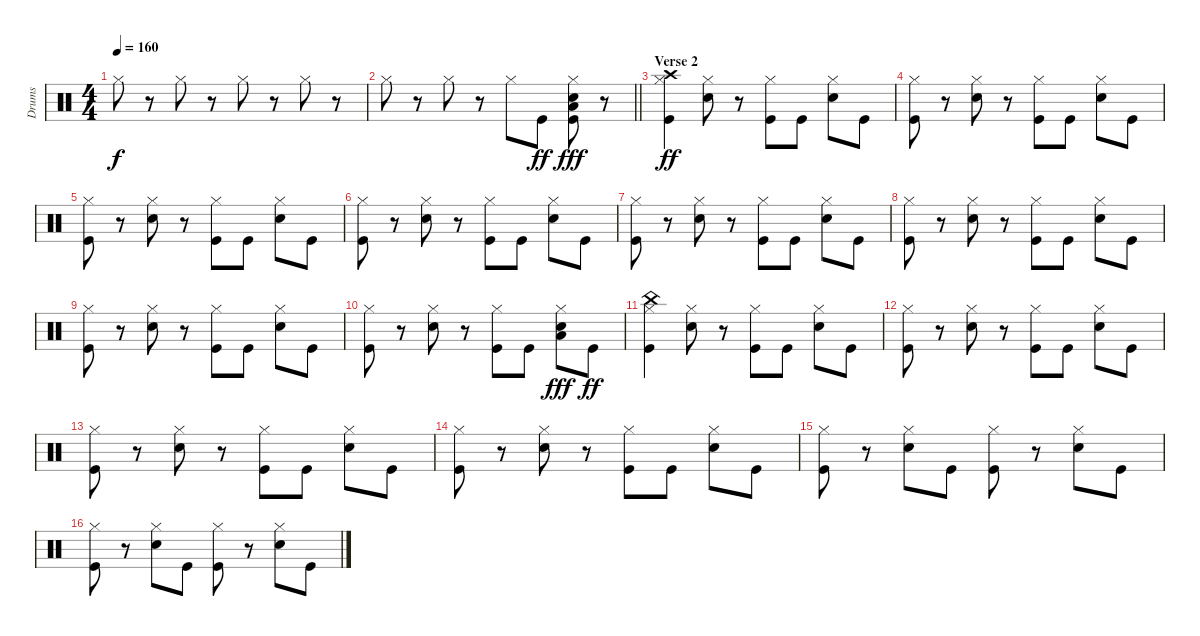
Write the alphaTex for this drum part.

\track ("Drums" "Drums") {instrument percussion}
\staff {score}
\articulation defaults
\ts (4 4)
\tempo 160
\clef neutral
\ks c "Hi-Hat (closed)".8{dy f}
r.8 "Hi-Hat (closed)".8 r.8 "Hi-Hat (closed)".8 r.8 "Hi-Hat (closed)".8 r.8 |
\barLineRight lightlight "Hi-Hat (closed)".8
r.8 "Hi-Hat (closed)".8 r.8 "Hi-Hat (closed)".8 "Kick (hit)".8{dy ff} ("Kick (hit)" "Snare (hit) 2" "Low Floor Tom (hit)" "Hi-Hat (closed)").8{dy fff} r.8 |
\section ("" "Verse 2")
("Crash high (hit)" "Hi-Hat (closed)" "Kick (hit)").4{dy ff} ("Hi-Hat (closed)" "Snare (hit) 2").8 r.8 ("Hi-Hat (closed)" "Kick (hit)").8 "Kick (hit)".8 ("Hi-Hat (closed)" "Snare (hit) 2").8 "Kick (hit)".8 |
("Hi-Hat (closed)" "Kick (hit)").8 r.8 ("Hi-Hat (closed)" "Snare (hit) 2").8 r.8 ("Hi-Hat (closed)" "Kick (hit)").8 "Kick (hit)".8 ("Hi-Hat (closed)" "Snare (hit) 2").8 "Kick (hit)".8 |
("Hi-Hat (closed)" "Kick (hit)").8 r.8 ("Hi-Hat (closed)" "Snare (hit) 2").8 r.8 ("Hi-Hat (closed)" "Kick (hit)").8 "Kick (hit)".8 ("Hi-Hat (closed)" "Snare (hit) 2").8 "Kick (hit)".8 |
("Hi-Hat (closed)" "Kick (hit)").8 r.8 ("Hi-Hat (closed)" "Snare (hit) 2").8 r.8 ("Hi-Hat (closed)" "Kick (hit)").8 "Kick (hit)".8 ("Hi-Hat (closed)" "Snare (hit) 2").8 "Kick (hit)".8 |
("Kick (hit)" "Hi-Hat (closed)").8 r.8 ("Hi-Hat (closed)" "Snare (hit) 2").8 r.8 ("Kick (hit)" "Hi-Hat (closed)").8 "Kick (hit)".8 ("Hi-Hat (closed)" "Snare (hit) 2").8 "Kick (hit)".8 |
("Hi-Hat (closed)" "Kick (hit)").8 r.8 ("Hi-Hat (closed)" "Snare (hit) 2").8 r.8 ("Hi-Hat (closed)" "Kick (hit)").8 "Kick (hit)".8 ("Hi-Hat (closed)" "Snare (hit) 2").8 "Kick (hit)".8 |
("Hi-Hat (closed)" "Kick (hit)").8 r.8 ("Hi-Hat (closed)" "Snare (hit) 2").8 r.8 ("Hi-Hat (closed)" "Kick (hit)").8 "Kick (hit)".8 ("Hi-Hat (closed)" "Snare (hit) 2").8 "Kick (hit)".8 |
("Hi-Hat (closed)" "Kick (hit)").8 r.8 ("Hi-Hat (closed)" "Snare (hit) 2").8 r.8 ("Hi-Hat (closed)" "Kick (hit)").8 "Kick (hit)".8 ("Snare (hit) 2" "Hi-Hat (closed)" "Low Floor Tom (hit)").8{dy fff} "Kick (hit)".8{dy ff} |
("China (hit)" "Hi-Hat (closed)" "Kick (hit)").4 ("Hi-Hat (closed)" "Snare (hit) 2").8 r.8 ("Hi-Hat (closed)" "Kick (hit)").8 "Kick (hit)".8 ("Hi-Hat (closed)" "Snare (hit) 2").8 "Kick (hit)".8 |
("Hi-Hat (closed)" "Kick (hit)").8 r.8 ("Hi-Hat (closed)" "Snare (hit) 2").8 r.8 ("Hi-Hat (closed)" "Kick (hit)").8 "Kick (hit)".8 ("Hi-Hat (closed)" "Snare (hit) 2").8 "Kick (hit)".8 |
("Hi-Hat (closed)" "Kick (hit)").8 r.8 ("Hi-Hat (closed)" "Snare (hit) 2").8 r.8 ("Hi-Hat (closed)" "Kick (hit)").8 "Kick (hit)".8 ("Hi-Hat (closed)" "Snare (hit) 2").8 "Kick (hit)".8 |
("Hi-Hat (closed)" "Kick (hit)").8 r.8 ("Hi-Hat (closed)" "Snare (hit) 2").8 r.8 ("Hi-Hat (closed)" "Kick (hit)").8 "Kick (hit)".8 ("Hi-Hat (closed)" "Snare (hit) 2").8 "Kick (hit)".8 |
("Kick (hit)" "Hi-Hat (closed)").8 r.8 ("Hi-Hat (closed)" "Snare (hit) 2").8 "Kick (hit)".8 ("Hi-Hat (closed)" "Kick (hit)").8 r.8 ("Hi-Hat (closed)" "Snare (hit) 2").8 "Kick (hit)".8 |
("Hi-Hat (closed)" "Kick (hit)").8 r.8 ("Hi-Hat (closed)" "Snare (hit) 2").8 "Kick (hit)".8 ("Hi-Hat (closed)" "Kick (hit)").8 r.8 ("Hi-Hat (closed)" "Snare (hit) 2").8 "Kick (hit)".8
